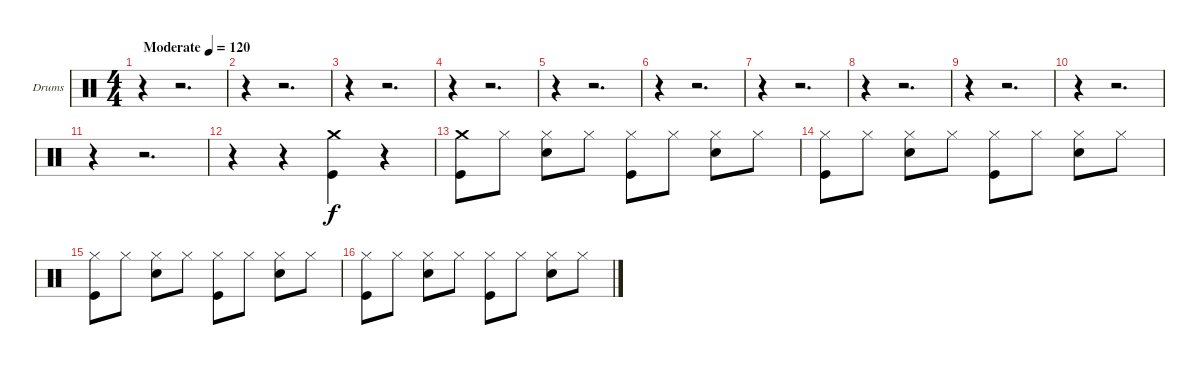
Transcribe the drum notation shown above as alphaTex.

\bracketExtendMode groupsimilarinstruments
\firstSystemTrackNameOrientation horizontal
\otherSystemsTrackNameOrientation horizontal
\track ("Drumkit" "Drums") {instrument percussion}
\staff {score}
\articulation defaults
\ts (4 4)
\beaming (8 2 2 2 2)
\tempo (120 "Moderate")
\clef neutral
\ks c
r.4{dy f} r.2{d} |
r.4 r.2{d} |
r.4 r.2{d} |
r.4 r.2{d} |
r.4 r.2{d} |
r.4 r.2{d} |
r.4 r.2{d} |
r.4 r.2{d} |
r.4 r.2{d} |
r.4 r.2{d} |
r.4 r.2{d} |
r.4 r.4 ("Crash medium (hit)" "Kick (hit)").4 r.4 |
("Crash medium (hit)" "Kick (hit)").8 "Hi-Hat (closed)".8 ("Hi-Hat (closed)" "Snare (hit) 2").8 "Hi-Hat (closed)".8 ("Hi-Hat (closed)" "Kick (hit)").8 "Hi-Hat (closed)".8 ("Hi-Hat (closed)" "Snare (hit) 2").8 "Hi-Hat (closed)".8 |
("Hi-Hat (closed)" "Kick (hit)").8 "Hi-Hat (closed)".8 ("Hi-Hat (closed)" "Snare (hit) 2").8 "Hi-Hat (closed)".8 ("Hi-Hat (closed)" "Kick (hit)").8 "Hi-Hat (closed)".8 ("Hi-Hat (closed)" "Snare (hit) 2").8 "Hi-Hat (closed)".8 |
("Hi-Hat (closed)" "Kick (hit)").8 "Hi-Hat (closed)".8 ("Hi-Hat (closed)" "Snare (hit) 2").8 "Hi-Hat (closed)".8 ("Hi-Hat (closed)" "Kick (hit)").8 "Hi-Hat (closed)".8 ("Hi-Hat (closed)" "Snare (hit) 2").8 "Hi-Hat (closed)".8 |
("Hi-Hat (closed)" "Kick (hit)").8 "Hi-Hat (closed)".8 ("Hi-Hat (closed)" "Snare (hit) 2").8 "Hi-Hat (closed)".8 ("Hi-Hat (closed)" "Kick (hit)").8 "Hi-Hat (closed)".8 ("Hi-Hat (closed)" "Snare (hit) 2").8 "Hi-Hat (closed)".8
